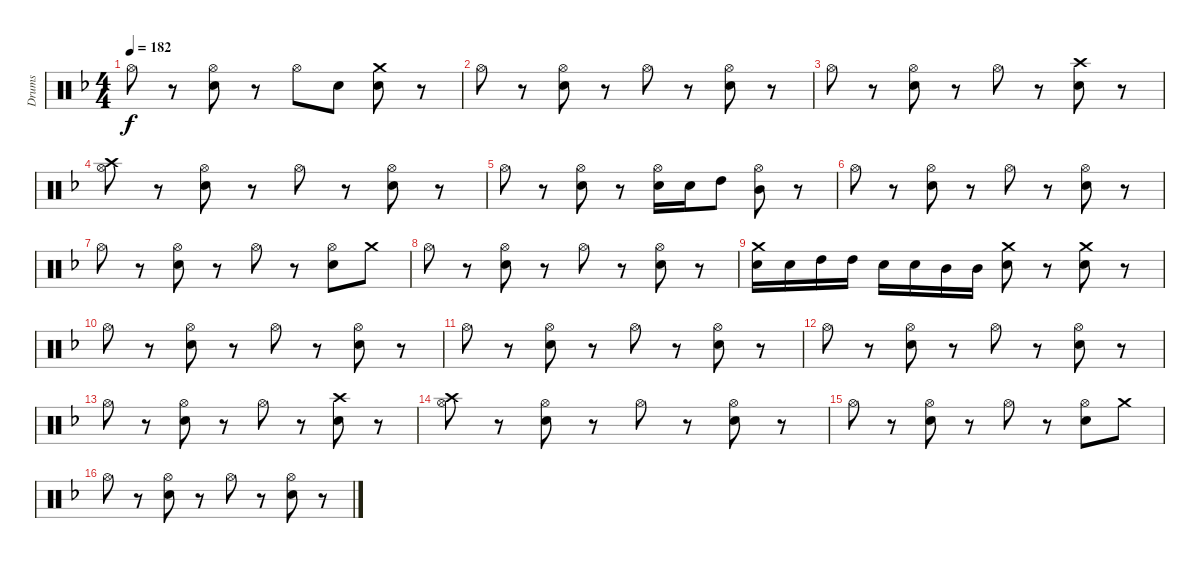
\track ("Drums" "Drums") {instrument percussion}
\staff {score}
\articulation defaults
\ts (4 4)
\tempo 182
\clef neutral
\ks dminor "Hi-Hat (open)".8{dy f}
r.8 ("Hi-Hat (open)" "Snare (hit) 2").8 r.8 "Hi-Hat (open)".8 "Snare (hit) 2".8 ("Crash medium (hit)" "Snare (hit) 2").8 r.8 |
"Hi-Hat (open)".8 r.8 ("Hi-Hat (open)" "Snare (hit) 2").8 r.8 "Hi-Hat (open)".8 r.8 ("Hi-Hat (open)" "Snare (hit) 2").8 r.8 |
"Hi-Hat (open)".8 r.8 ("Hi-Hat (open)" "Snare (hit) 2").8 r.8 "Hi-Hat (open)".8 r.8 ("Crash high (hit)" "Snare (hit) 2").8 r.8 |
("Hi-Hat (open)" "Crash high (hit)").8 r.8 ("Hi-Hat (open)" "Snare (hit) 2").8 r.8 "Hi-Hat (open)".8 r.8 ("Hi-Hat (open)" "Snare (hit) 2").8 r.8 |
"Hi-Hat (open)".8 r.8 ("Hi-Hat (open)" "Snare (hit) 2").8 r.8 ("Hi-Hat (open)" "Snare (hit) 2").16 "Snare (hit) 2".16 "High Tom (hit)".8 ("Hi-Hat (open)" "Mid Tom (hit)").8 r.8 |
"Hi-Hat (open)".8 r.8 ("Hi-Hat (open)" "Snare (hit) 2").8 r.8 "Hi-Hat (open)".8 r.8 ("Hi-Hat (open)" "Snare (hit) 2").8 r.8 |
"Hi-Hat (open)".8 r.8 ("Hi-Hat (open)" "Snare (hit) 2").8 r.8 "Hi-Hat (open)".8 r.8 ("Hi-Hat (open)" "Snare (hit) 2").8 "Crash medium (hit)".8 |
"Hi-Hat (open)".8 r.8 ("Hi-Hat (open)" "Snare (hit) 2").8 r.8 "Hi-Hat (open)".8 r.8 ("Hi-Hat (open)" "Snare (hit) 2").8 r.8 |
("Crash medium (hit)" "Snare (hit) 2").16 "Snare (hit) 2".16 "High Tom (hit)".16 "High Tom (hit)".16 "Snare (hit) 2".16 "Snare (hit) 2".16 "Mid Tom (hit)".16 "Mid Tom (hit)".16 ("Crash medium (hit)" "Snare (hit) 2").8 r.8 ("Crash medium (hit)" "Snare (hit) 2").8 r.8 |
"Hi-Hat (open)".8 r.8 ("Hi-Hat (open)" "Snare (hit) 2").8 r.8 "Hi-Hat (open)".8 r.8 ("Hi-Hat (open)" "Snare (hit) 2").8 r.8 |
"Hi-Hat (open)".8 r.8 ("Hi-Hat (open)" "Snare (hit) 2").8 r.8 "Hi-Hat (open)".8 r.8 ("Hi-Hat (open)" "Snare (hit) 2").8 r.8 |
"Hi-Hat (open)".8 r.8 ("Hi-Hat (open)" "Snare (hit) 2").8 r.8 "Hi-Hat (open)".8 r.8 ("Hi-Hat (open)" "Snare (hit) 2").8 r.8 |
"Hi-Hat (open)".8 r.8 ("Hi-Hat (open)" "Snare (hit) 2").8 r.8 "Hi-Hat (open)".8 r.8 ("Crash high (hit)" "Snare (hit) 2").8 r.8 |
("Hi-Hat (open)" "Crash high (hit)").8 r.8 ("Hi-Hat (open)" "Snare (hit) 2").8 r.8 "Hi-Hat (open)".8 r.8 ("Hi-Hat (open)" "Snare (hit) 2").8 r.8 |
"Hi-Hat (open)".8 r.8 ("Hi-Hat (open)" "Snare (hit) 2").8 r.8 "Hi-Hat (open)".8 r.8 ("Hi-Hat (open)" "Snare (hit) 2").8 "Crash medium (hit)".8 |
"Hi-Hat (open)".8 r.8 ("Hi-Hat (open)" "Snare (hit) 2").8 r.8 "Hi-Hat (open)".8 r.8 ("Hi-Hat (open)" "Snare (hit) 2").8 r.8
